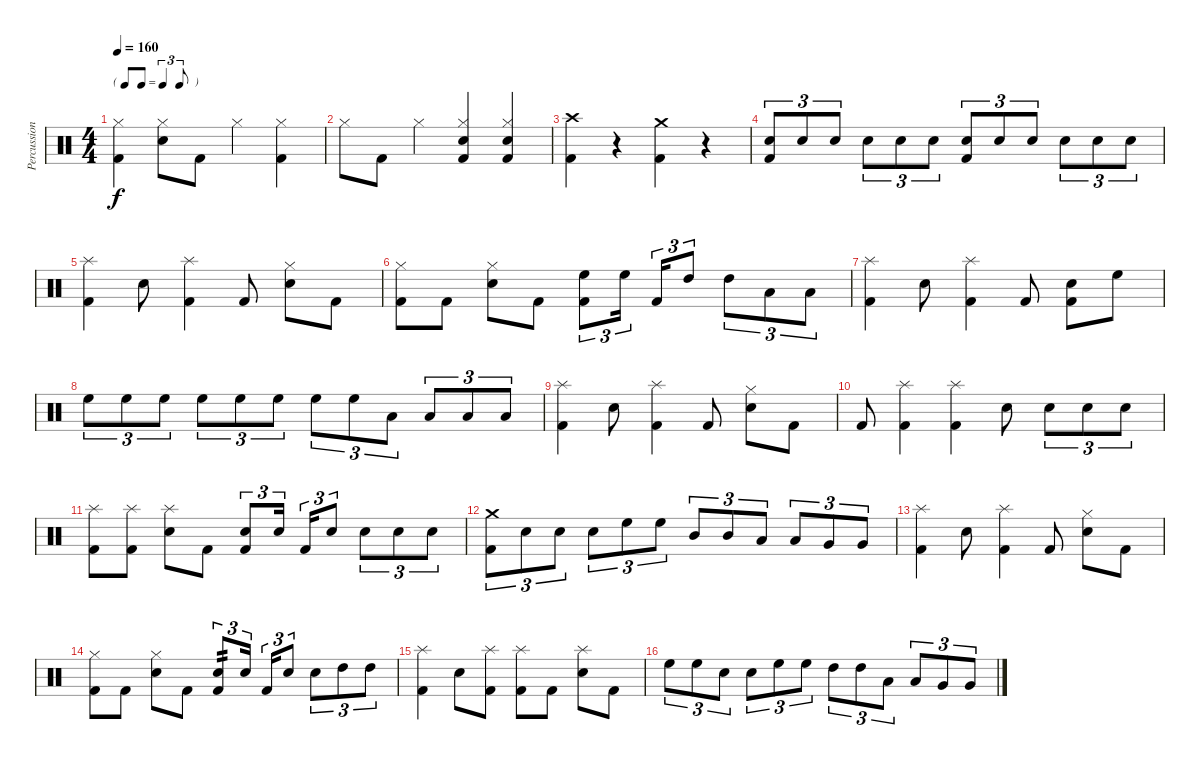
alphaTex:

\track ("Percussion" "Percussion") {instrument percussion}
\staff {score}
\articulation defaults
\ts (4 4)
\tf triplet8th
\tempo 160
\clef neutral
\ks c
("Kick (hit) 2" "Hi-Hat (closed)").4{dy f} ("Snare (hit) 2" "Hi-Hat (closed)").8 "Kick (hit) 2".8 "Hi-Hat (closed)".4 ("Kick (hit) 2" "Hi-Hat (closed)").4 |
"Hi-Hat (closed)".8 "Kick (hit) 2".8 "Hi-Hat (closed)".4 ("Kick (hit) 2" "Snare (hit) 2" "Hi-Hat (closed)").4 ("Kick (hit) 2" "Snare (hit) 2" "Hi-Hat (closed)").4 |
("Kick (hit) 2" "Crash high (hit)").4 r.4 ("Kick (hit) 2" "Crash medium (hit)").4 r.4 |
("Snare (hit) 2" "Kick (hit) 2").8{tu (3 2)} "Snare (hit) 2".8{tu (3 2)} "Snare (hit) 2".8{tu (3 2)} "Snare (hit) 2".8{tu (3 2)} "Snare (hit) 2".8{tu (3 2)} "Snare (hit) 2".8{tu (3 2)} ("Snare (hit) 2" "Kick (hit) 2").8{tu (3 2)} "Snare (hit) 2".8{tu (3 2)} "Snare (hit) 2".8{tu (3 2)} "Snare (hit) 2".8{tu (3 2)} "Snare (hit) 2".8{tu (3 2)} "Snare (hit) 2".8{tu (3 2)} |
("Kick (hit) 2" "Splash (hit)").4 "Snare (hit) 2".8 ("Kick (hit) 2" "Splash (hit)").4 "Kick (hit) 2".8 ("Snare (hit) 2" "Hi-Hat (closed)").8 "Kick (hit) 2".8 |
("Kick (hit) 2" "Hi-Hat (closed)").8 "Kick (hit) 2".8 ("Snare (hit) 2" "Hi-Hat (closed)").8 "Kick (hit) 2".8 ("Kick (hit) 2" "High Floor Tom (hit)").8{tu (3 2)} "High Floor Tom (hit)".16{tu (3 2)} "Kick (hit) 2".16{tu (3 2)} "High Tom (hit)".8{tu (3 2)} "High Tom (hit)".8{tu (3 2)} "Low Tom (hit)".8{tu (3 2)} "Low Tom (hit)".8{tu (3 2)} |
("Kick (hit) 2" "Splash (hit)").4 "Snare (hit) 2".8 ("Kick (hit) 2" "Splash (hit)").4 "Kick (hit) 2".8 ("Kick (hit) 2" "Snare (hit) 2").8 "High Floor Tom (hit)".8 |
"High Floor Tom (hit)".8{tu (3 2)} "High Floor Tom (hit)".8{tu (3 2)} "High Floor Tom (hit)".8{tu (3 2)} "High Floor Tom (hit)".8{tu (3 2)} "High Floor Tom (hit)".8{tu (3 2)} "High Floor Tom (hit)".8{tu (3 2)} "High Floor Tom (hit)".8{tu (3 2)} "High Floor Tom (hit)".8{tu (3 2)} "Low Tom (hit)".8{tu (3 2)} "Low Tom (hit)".8{tu (3 2)} "Low Tom (hit)".8{tu (3 2)} "Low Tom (hit)".8{tu (3 2)} |
("Kick (hit) 2" "Splash (hit)").4 "Snare (hit) 2".8 ("Kick (hit) 2" "Splash (hit)").4 "Kick (hit) 2".8 ("Snare (hit) 2" "Hi-Hat (closed)").8 "Kick (hit) 2".8 |
"Kick (hit) 2".8 ("Kick (hit) 2" "Splash (hit)").4 ("Kick (hit) 2" "Splash (hit)").4 "Snare (hit) 2".8 "Snare (hit) 2".8{tu (3 2)} "Snare (hit) 2".8{tu (3 2)} "Snare (hit) 2".8{tu (3 2)} |
("Kick (hit) 2" "Splash (hit)").8 ("Kick (hit) 2" "Splash (hit)").8 ("Snare (hit) 2" "Splash (hit)").8 "Kick (hit) 2".8 ("Snare (hit) 2" "Kick (hit) 2").8{tu (3 2)} "Snare (hit) 2".16{tu (3 2)} "Kick (hit) 2".16{tu (3 2)} "Snare (hit) 2".8{tu (3 2)} "Snare (hit) 2".8{tu (3 2)} "Snare (hit) 2".8{tu (3 2)} "Snare (hit) 2".8{tu (3 2)} |
("Kick (hit) 2" "Crash medium (hit)").8{tu (3 2)} "Snare (hit) 2".8{tu (3 2)} "Snare (hit) 2".8{tu (3 2)} "Snare (hit) 2".8{tu (3 2)} "High Floor Tom (hit)".8{tu (3 2)} "High Floor Tom (hit)".8{tu (3 2)} "Mid Tom (hit)".8{tu (3 2)} "Mid Tom (hit)".8{tu (3 2)} "Low Tom (hit)".8{tu (3 2)} "Low Tom (hit)".8{tu (3 2)} "Very Low Tom (hit)".8{tu (3 2)} "Very Low Tom (hit)".8{tu (3 2)} |
("Kick (hit) 2" "Splash (hit)").4 "Snare (hit) 2".8 ("Kick (hit) 2" "Splash (hit)").4 "Kick (hit) 2".8 ("Snare (hit) 2" "Hi-Hat (closed)").8 "Kick (hit) 2".8 |
("Kick (hit) 2" "Hi-Hat (closed)").8 "Kick (hit) 2".8 ("Snare (hit) 2" "Hi-Hat (closed)").8 "Kick (hit) 2".8 ("Snare (hit) 2" "Kick (hit) 2").8{tu (3 2) tp 2} "Snare (hit) 2".16{tu (3 2)} "Kick (hit) 2".16{tu (3 2)} "Snare (hit) 2".8{tu (3 2)} "Snare (hit) 2".8{tu (3 2)} "High Tom (hit)".8{tu (3 2)} "High Tom (hit)".8{tu (3 2)} |
("Kick (hit) 2" "Splash (hit)").4 "Snare (hit) 2".8 ("Kick (hit) 2" "Splash (hit)").8 ("Kick (hit) 2" "Splash (hit)").8 "Kick (hit) 2".8 ("Snare (hit) 2" "Splash (hit)").8 "Kick (hit) 2".8 |
"High Floor Tom (hit)".8{tu (3 2)} "High Floor Tom (hit)".8{tu (3 2)} "Snare (hit) 2".8{tu (3 2)} "Snare (hit) 2".8{tu (3 2)} "High Floor Tom (hit)".8{tu (3 2)} "High Floor Tom (hit)".8{tu (3 2)} "High Tom (hit)".8{tu (3 2)} "High Tom (hit)".8{tu (3 2)} "Low Tom (hit)".8{tu (3 2)} "Low Tom (hit)".8{tu (3 2)} "Very Low Tom (hit)".8{tu (3 2)} "Very Low Tom (hit)".8{tu (3 2)}
